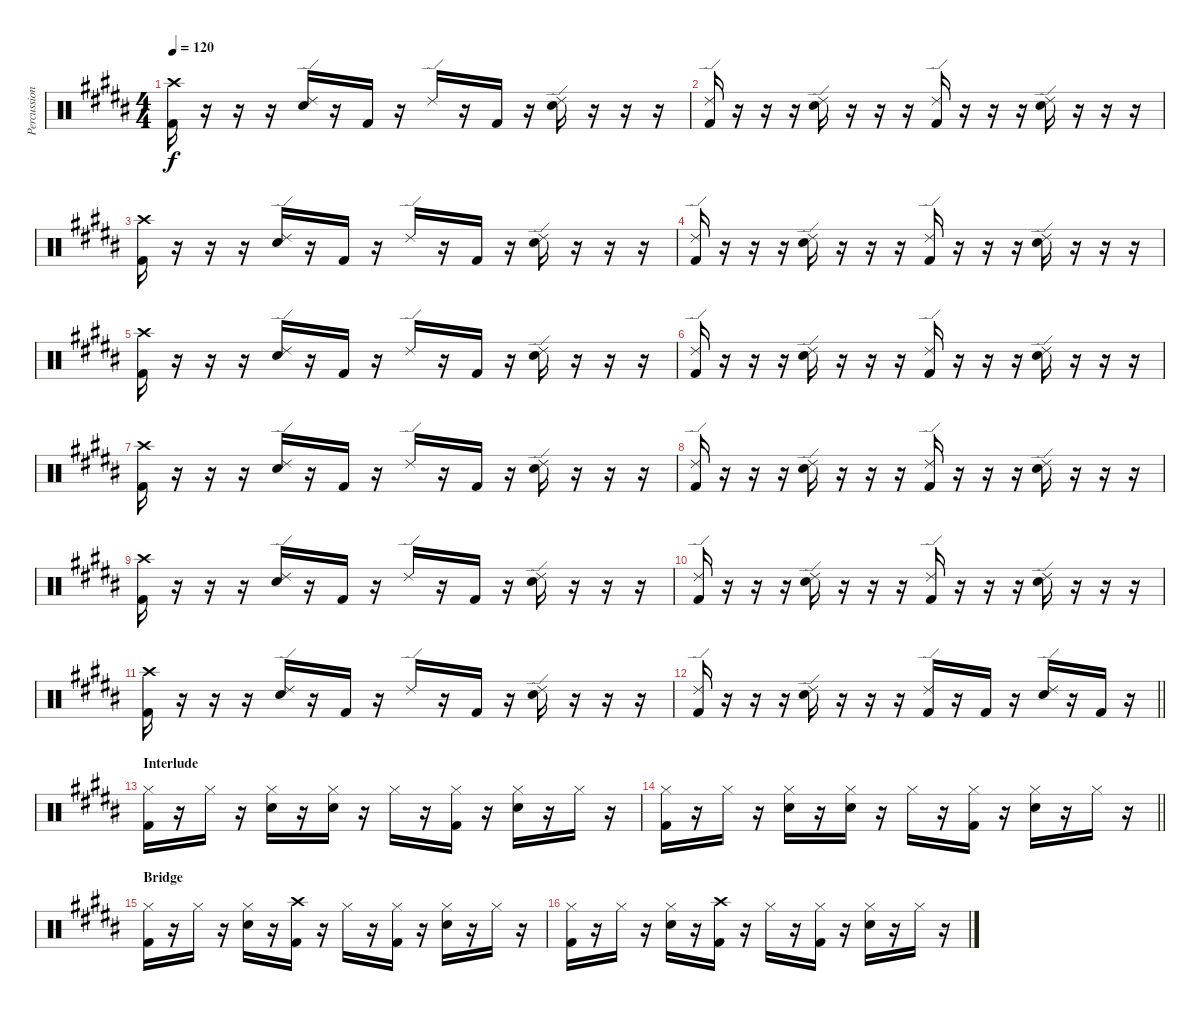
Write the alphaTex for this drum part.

\track ("Percussion" "Percussion") {instrument percussion}
\staff {score}
\articulation defaults
\ts (4 4)
\tempo 120
\clef neutral
\ks b
("Crash high (hit)" "Kick (hit) 2").16{dy f} r.16 r.16 r.16 ("Ride (edge) 2" "Electric Snare (hit)").16 r.16 "Kick (hit) 2".16 r.16 "Ride (edge) 2".16 r.16 "Kick (hit) 2".16 r.16 ("Ride (edge) 2" "Electric Snare (hit)").16 r.16 r.16 r.16 |
("Ride (edge) 2" "Kick (hit) 2").16 r.16 r.16 r.16 ("Ride (edge) 2" "Electric Snare (hit)").16 r.16 r.16 r.16 ("Ride (edge) 2" "Kick (hit) 2").16 r.16 r.16 r.16 ("Ride (edge) 2" "Electric Snare (hit)").16 r.16 r.16 r.16 |
("Crash high (hit)" "Kick (hit) 2").16 r.16 r.16 r.16 ("Ride (edge) 2" "Electric Snare (hit)").16 r.16 "Kick (hit) 2".16 r.16 "Ride (edge) 2".16 r.16 "Kick (hit) 2".16 r.16 ("Ride (edge) 2" "Electric Snare (hit)").16 r.16 r.16 r.16 |
("Ride (edge) 2" "Kick (hit) 2").16 r.16 r.16 r.16 ("Ride (edge) 2" "Electric Snare (hit)").16 r.16 r.16 r.16 ("Ride (edge) 2" "Kick (hit) 2").16 r.16 r.16 r.16 ("Ride (edge) 2" "Electric Snare (hit)").16 r.16 r.16 r.16 |
("Crash high (hit)" "Kick (hit) 2").16 r.16 r.16 r.16 ("Ride (edge) 2" "Electric Snare (hit)").16 r.16 "Kick (hit) 2".16 r.16 "Ride (edge) 2".16 r.16 "Kick (hit) 2".16 r.16 ("Ride (edge) 2" "Electric Snare (hit)").16 r.16 r.16 r.16 |
("Ride (edge) 2" "Kick (hit) 2").16 r.16 r.16 r.16 ("Ride (edge) 2" "Electric Snare (hit)").16 r.16 r.16 r.16 ("Ride (edge) 2" "Kick (hit) 2").16 r.16 r.16 r.16 ("Ride (edge) 2" "Electric Snare (hit)").16 r.16 r.16 r.16 |
("Crash high (hit)" "Kick (hit) 2").16 r.16 r.16 r.16 ("Ride (edge) 2" "Electric Snare (hit)").16 r.16 "Kick (hit) 2".16 r.16 "Ride (edge) 2".16 r.16 "Kick (hit) 2".16 r.16 ("Ride (edge) 2" "Electric Snare (hit)").16 r.16 r.16 r.16 |
("Ride (edge) 2" "Kick (hit) 2").16 r.16 r.16 r.16 ("Ride (edge) 2" "Electric Snare (hit)").16 r.16 r.16 r.16 ("Ride (edge) 2" "Kick (hit) 2").16 r.16 r.16 r.16 ("Ride (edge) 2" "Electric Snare (hit)").16 r.16 r.16 r.16 |
("Crash high (hit)" "Kick (hit) 2").16 r.16 r.16 r.16 ("Ride (edge) 2" "Electric Snare (hit)").16 r.16 "Kick (hit) 2".16 r.16 "Ride (edge) 2".16 r.16 "Kick (hit) 2".16 r.16 ("Ride (edge) 2" "Electric Snare (hit)").16 r.16 r.16 r.16 |
("Ride (edge) 2" "Kick (hit) 2").16 r.16 r.16 r.16 ("Ride (edge) 2" "Electric Snare (hit)").16 r.16 r.16 r.16 ("Ride (edge) 2" "Kick (hit) 2").16 r.16 r.16 r.16 ("Ride (edge) 2" "Electric Snare (hit)").16 r.16 r.16 r.16 |
("Crash high (hit)" "Kick (hit) 2").16 r.16 r.16 r.16 ("Ride (edge) 2" "Electric Snare (hit)").16 r.16 "Kick (hit) 2".16 r.16 "Ride (edge) 2".16 r.16 "Kick (hit) 2".16 r.16 ("Ride (edge) 2" "Electric Snare (hit)").16 r.16 r.16 r.16 |
\barLineRight lightlight
("Ride (edge) 2" "Kick (hit) 2").16 r.16 r.16 r.16 ("Ride (edge) 2" "Electric Snare (hit)").16 r.16 r.16 r.16 ("Ride (edge) 2" "Kick (hit) 2").16 r.16 "Kick (hit) 2".16 r.16 ("Ride (edge) 2" "Electric Snare (hit)").16 r.16 "Kick (hit) 2".16 r.16 |
\section ("" "Interlude")
("Hi-Hat (closed)" "Kick (hit) 2").16 r.16 "Hi-Hat (closed)".16 r.16 ("Hi-Hat (closed)" "Electric Snare (hit)").16 r.16 ("Hi-Hat (closed)" "Electric Snare (hit)").16 r.16 "Hi-Hat (closed)".16 r.16 ("Hi-Hat (closed)" "Kick (hit) 2").16 r.16 ("Hi-Hat (closed)" "Electric Snare (hit)").16 r.16 "Hi-Hat (closed)".16 r.16 |
\barLineRight lightlight
("Hi-Hat (closed)" "Kick (hit) 2").16 r.16 "Hi-Hat (closed)".16 r.16 ("Hi-Hat (closed)" "Electric Snare (hit)").16 r.16 ("Hi-Hat (closed)" "Electric Snare (hit)").16 r.16 "Hi-Hat (closed)".16 r.16 ("Hi-Hat (closed)" "Kick (hit) 2").16 r.16 ("Hi-Hat (closed)" "Electric Snare (hit)").16 r.16 "Hi-Hat (closed)".16 r.16 |
\section ("" "Bridge")
("Hi-Hat (closed)" "Kick (hit) 2").16 r.16 "Hi-Hat (closed)".16 r.16 ("Hi-Hat (closed)" "Electric Snare (hit)").16 r.16 ("Crash high (hit)" "Kick (hit) 2").16 r.16 "Hi-Hat (closed)".16 r.16 ("Hi-Hat (closed)" "Kick (hit) 2").16 r.16 ("Hi-Hat (closed)" "Electric Snare (hit)").16 r.16 "Hi-Hat (closed)".16 r.16 |
("Hi-Hat (closed)" "Kick (hit) 2").16 r.16 "Hi-Hat (closed)".16 r.16 ("Hi-Hat (closed)" "Electric Snare (hit)").16 r.16 ("Crash high (hit)" "Kick (hit) 2").16 r.16 "Hi-Hat (closed)".16 r.16 ("Hi-Hat (closed)" "Kick (hit) 2").16 r.16 ("Hi-Hat (closed)" "Electric Snare (hit)").16 r.16 "Hi-Hat (closed)".16 r.16
